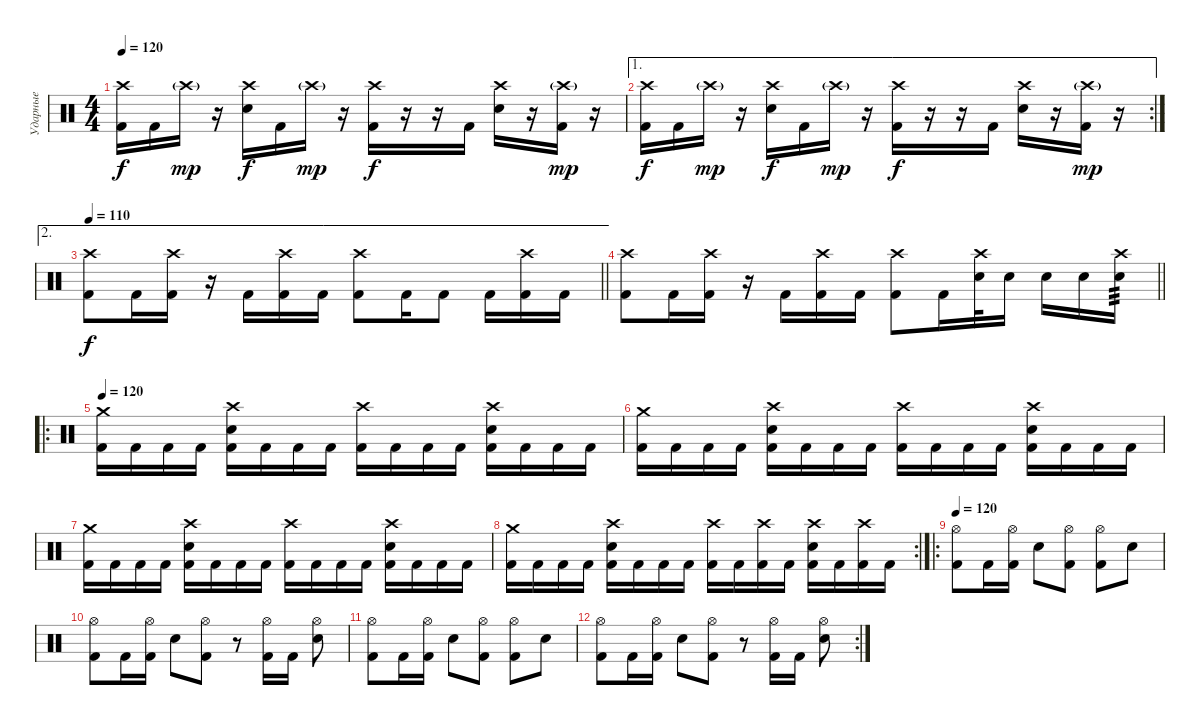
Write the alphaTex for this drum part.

\track ("Ударные" "Ударные") {instrument percussion}
\staff {score}
\articulation defaults
\ts (4 4)
\tempo 120
\clef neutral
\ks c
("Crash high (hit)" "Kick (hit) 2").16{dy f} "Kick (hit) 2".16 "Crash high (hit)"{g}.16{dy mp} r.16 ("Crash high (hit)" "Snare (hit) 2").16{dy f} "Kick (hit) 2".16 "Crash high (hit)"{g}.16{dy mp} r.16 ("Crash high (hit)" "Kick (hit) 2").16{dy f} r.16 r.16 "Kick (hit) 2".16 ("Crash high (hit)" "Snare (hit) 2").16 r.16 ("Crash high (hit)"{g} "Kick (hit) 2").16{dy mp} r.16 |
\ae 1
\rc 2
("Crash high (hit)" "Kick (hit) 2").16{dy f} "Kick (hit) 2".16 "Crash high (hit)"{g}.16{dy mp} r.16 ("Crash high (hit)" "Snare (hit) 2").16{dy f} "Kick (hit) 2".16 "Crash high (hit)"{g}.16{dy mp} r.16 ("Crash high (hit)" "Kick (hit) 2").16{dy f} r.16 r.16 "Kick (hit) 2".16 ("Crash high (hit)" "Snare (hit) 2").16 r.16 ("Crash high (hit)"{g} "Kick (hit) 2").16{dy mp} r.16 |
\ae 2
\tempo 110
\barLineRight lightlight
("Kick (hit) 2" "Crash high (hit)").8{dy f} "Kick (hit) 2".16 ("Kick (hit) 2" "Crash high (hit)").16 r.16 "Kick (hit) 2".16 ("Kick (hit) 2" "Crash high (hit)").16 "Kick (hit) 2".16 ("Kick (hit) 2" "Crash high (hit)").8 "Kick (hit) 2".16 "Kick (hit) 2".8 "Kick (hit) 2".16 ("Kick (hit) 2" "Crash high (hit)").16 "Kick (hit) 2".16 |
\barLineRight lightlight
("Kick (hit) 2" "Crash high (hit)").8 "Kick (hit) 2".16 ("Kick (hit) 2" "Crash high (hit)").16 r.16 "Kick (hit) 2".16 ("Kick (hit) 2" "Crash high (hit)").16 "Kick (hit) 2".16 ("Kick (hit) 2" "Crash high (hit)").8 "Kick (hit) 2".16 ("Crash high (hit)" "Electric Snare (hit)").32 "Electric Snare (hit)".16 "Electric Snare (hit)".16 "Electric Snare (hit)".16 ("Crash high (hit)" "Electric Snare (hit)").16{tp 3} |
\ro
\tempo 120
("Crash medium (hit)" "Kick (hit) 2").16 "Kick (hit) 2".16 "Kick (hit) 2".16 "Kick (hit) 2".16 ("Crash high (hit)" "Electric Snare (hit)" "Kick (hit) 2").16 "Kick (hit) 2".16 "Kick (hit) 2".16 "Kick (hit) 2".16 ("Crash high (hit)" "Kick (hit) 2").16 "Kick (hit) 2".16 "Kick (hit) 2".16 "Kick (hit) 2".16 ("Crash high (hit)" "Electric Snare (hit)" "Kick (hit) 2").16 "Kick (hit) 2".16 "Kick (hit) 2".16 "Kick (hit) 2".16 |
("Crash medium (hit)" "Kick (hit) 2").16 "Kick (hit) 2".16 "Kick (hit) 2".16 "Kick (hit) 2".16 ("Crash high (hit)" "Electric Snare (hit)" "Kick (hit) 2").16 "Kick (hit) 2".16 "Kick (hit) 2".16 "Kick (hit) 2".16 ("Crash high (hit)" "Kick (hit) 2").16 "Kick (hit) 2".16 "Kick (hit) 2".16 "Kick (hit) 2".16 ("Crash high (hit)" "Electric Snare (hit)" "Kick (hit) 2").16 "Kick (hit) 2".16 "Kick (hit) 2".16 "Kick (hit) 2".16 |
("Crash medium (hit)" "Kick (hit) 2").16 "Kick (hit) 2".16 "Kick (hit) 2".16 "Kick (hit) 2".16 ("Crash high (hit)" "Electric Snare (hit)" "Kick (hit) 2").16 "Kick (hit) 2".16 "Kick (hit) 2".16 "Kick (hit) 2".16 ("Crash high (hit)" "Kick (hit) 2").16 "Kick (hit) 2".16 "Kick (hit) 2".16 "Kick (hit) 2".16 ("Crash high (hit)" "Electric Snare (hit)" "Kick (hit) 2").16 "Kick (hit) 2".16 "Kick (hit) 2".16 "Kick (hit) 2".16 |
\rc 2
("Crash medium (hit)" "Kick (hit) 2").16 "Kick (hit) 2".16 "Kick (hit) 2".16 "Kick (hit) 2".16 ("Crash high (hit)" "Electric Snare (hit)" "Kick (hit) 2").16 "Kick (hit) 2".16 "Kick (hit) 2".16 "Kick (hit) 2".16 ("Crash high (hit)" "Kick (hit) 2").16 "Kick (hit) 2".16 ("Crash high (hit)" "Kick (hit) 2").16 "Kick (hit) 2".16 ("Crash high (hit)" "Electric Snare (hit)" "Kick (hit) 2").16 "Kick (hit) 2".16 ("Crash high (hit)" "Kick (hit) 2").16 "Kick (hit) 2".16 |
\ro
\tempo 120
("Hi-Hat (open)" "Kick (hit) 2").8 "Kick (hit) 2".16 ("Hi-Hat (open)" "Kick (hit) 2").16 "Electric Snare (hit)".8 ("Hi-Hat (open)" "Kick (hit) 2").8 ("Hi-Hat (open)" "Kick (hit) 2").8 "Electric Snare (hit)".8 |
("Hi-Hat (open)" "Kick (hit) 2").8 "Kick (hit) 2".16 ("Hi-Hat (open)" "Kick (hit) 2").16 "Electric Snare (hit)".8 ("Hi-Hat (open)" "Kick (hit) 2").8 r.8 ("Hi-Hat (open)" "Kick (hit) 2").16 "Kick (hit) 2".16 ("Hi-Hat (open)" "Electric Snare (hit)").8 |
("Hi-Hat (open)" "Kick (hit) 2").8 "Kick (hit) 2".16 ("Hi-Hat (open)" "Kick (hit) 2").16 "Electric Snare (hit)".8 ("Hi-Hat (open)" "Kick (hit) 2").8 ("Hi-Hat (open)" "Kick (hit) 2").8 "Electric Snare (hit)".8 |
\rc 2
("Hi-Hat (open)" "Kick (hit) 2").8 "Kick (hit) 2".16 ("Hi-Hat (open)" "Kick (hit) 2").16 "Electric Snare (hit)".8 ("Hi-Hat (open)" "Kick (hit) 2").8 r.8 ("Hi-Hat (open)" "Kick (hit) 2").16 "Kick (hit) 2".16 ("Hi-Hat (open)" "Electric Snare (hit)").8
